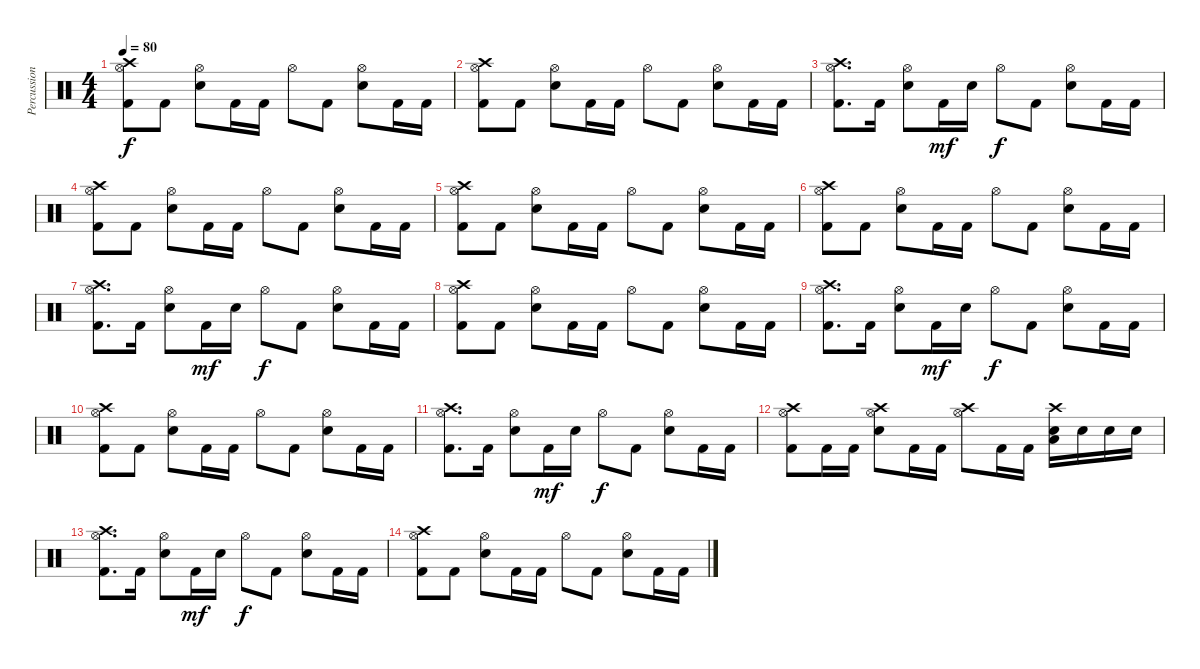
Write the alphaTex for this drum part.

\track ("Percussion" "Percussion") {instrument percussion}
\staff {score}
\articulation defaults
\ts (4 4)
\tempo 80
\clef neutral
\ks c
("Crash high (hit)" "Hi-Hat (open)" "Kick (hit) 2").8{dy f} "Kick (hit) 2".8 ("Hi-Hat (open)" "Snare (hit) 2").8 "Kick (hit) 2".16 "Kick (hit) 2".16 "Hi-Hat (open)".8 "Kick (hit) 2".8 ("Hi-Hat (open)" "Snare (hit) 2").8 "Kick (hit) 2".16 "Kick (hit) 2".16 |
("Crash high (hit)" "Hi-Hat (open)" "Kick (hit) 2").8 "Kick (hit) 2".8 ("Hi-Hat (open)" "Snare (hit) 2").8 "Kick (hit) 2".16 "Kick (hit) 2".16 "Hi-Hat (open)".8 "Kick (hit) 2".8 ("Hi-Hat (open)" "Snare (hit) 2").8 "Kick (hit) 2".16 "Kick (hit) 2".16 |
("Crash high (hit)" "Hi-Hat (open)" "Kick (hit) 2").8{d} "Kick (hit) 2".16 ("Hi-Hat (open)" "Snare (hit) 2").8 "Kick (hit) 2".16{dy mf} "Snare (hit) 2".16 "Hi-Hat (open)".8{dy f} "Kick (hit) 2".8 ("Hi-Hat (open)" "Snare (hit) 2").8 "Kick (hit) 2".16 "Kick (hit) 2".16 |
("Crash high (hit)" "Hi-Hat (open)" "Kick (hit) 2").8 "Kick (hit) 2".8 ("Hi-Hat (open)" "Snare (hit) 2").8 "Kick (hit) 2".16 "Kick (hit) 2".16 "Hi-Hat (open)".8 "Kick (hit) 2".8 ("Hi-Hat (open)" "Snare (hit) 2").8 "Kick (hit) 2".16 "Kick (hit) 2".16 |
("Crash high (hit)" "Hi-Hat (open)" "Kick (hit) 2").8 "Kick (hit) 2".8 ("Hi-Hat (open)" "Snare (hit) 2").8 "Kick (hit) 2".16 "Kick (hit) 2".16 "Hi-Hat (open)".8 "Kick (hit) 2".8 ("Hi-Hat (open)" "Snare (hit) 2").8 "Kick (hit) 2".16 "Kick (hit) 2".16 |
("Crash high (hit)" "Hi-Hat (open)" "Kick (hit) 2").8 "Kick (hit) 2".8 ("Hi-Hat (open)" "Snare (hit) 2").8 "Kick (hit) 2".16 "Kick (hit) 2".16 "Hi-Hat (open)".8 "Kick (hit) 2".8 ("Hi-Hat (open)" "Snare (hit) 2").8 "Kick (hit) 2".16 "Kick (hit) 2".16 |
("Crash high (hit)" "Hi-Hat (open)" "Kick (hit) 2").8{d} "Kick (hit) 2".16 ("Hi-Hat (open)" "Snare (hit) 2").8 "Kick (hit) 2".16{dy mf} "Snare (hit) 2".16 "Hi-Hat (open)".8{dy f} "Kick (hit) 2".8 ("Hi-Hat (open)" "Snare (hit) 2").8 "Kick (hit) 2".16 "Kick (hit) 2".16 |
("Crash high (hit)" "Hi-Hat (open)" "Kick (hit) 2").8 "Kick (hit) 2".8 ("Hi-Hat (open)" "Snare (hit) 2").8 "Kick (hit) 2".16 "Kick (hit) 2".16 "Hi-Hat (open)".8 "Kick (hit) 2".8 ("Hi-Hat (open)" "Snare (hit) 2").8 "Kick (hit) 2".16 "Kick (hit) 2".16 |
("Crash high (hit)" "Hi-Hat (open)" "Kick (hit) 2").8{d} "Kick (hit) 2".16 ("Hi-Hat (open)" "Snare (hit) 2").8 "Kick (hit) 2".16{dy mf} "Snare (hit) 2".16 "Hi-Hat (open)".8{dy f} "Kick (hit) 2".8 ("Hi-Hat (open)" "Snare (hit) 2").8 "Kick (hit) 2".16 "Kick (hit) 2".16 |
("Crash high (hit)" "Hi-Hat (open)" "Kick (hit) 2").8 "Kick (hit) 2".8 ("Hi-Hat (open)" "Snare (hit) 2").8 "Kick (hit) 2".16 "Kick (hit) 2".16 "Hi-Hat (open)".8 "Kick (hit) 2".8 ("Hi-Hat (open)" "Snare (hit) 2").8 "Kick (hit) 2".16 "Kick (hit) 2".16 |
("Crash high (hit)" "Hi-Hat (open)" "Kick (hit) 2").8{d} "Kick (hit) 2".16 ("Hi-Hat (open)" "Snare (hit) 2").8 "Kick (hit) 2".16{dy mf} "Snare (hit) 2".16 "Hi-Hat (open)".8{dy f} "Kick (hit) 2".8 ("Hi-Hat (open)" "Snare (hit) 2").8 "Kick (hit) 2".16 "Kick (hit) 2".16 |
("Crash high (hit)" "Hi-Hat (open)" "Kick (hit) 2").8 "Kick (hit) 2".16 "Kick (hit) 2".16 ("Crash high (hit)" "Hi-Hat (open)" "Snare (hit) 2").8 "Kick (hit) 2".16 "Kick (hit) 2".16 ("Crash high (hit)" "Hi-Hat (open)").8 "Kick (hit) 2".16 "Kick (hit) 2".16 ("Crash high (hit)" "Low Floor Tom (hit)" "Snare (hit) 2").16 "Snare (hit) 2".16 "Snare (hit) 2".16 "Snare (hit) 2".16 |
("Crash high (hit)" "Hi-Hat (open)" "Kick (hit) 2").8{d} "Kick (hit) 2".16 ("Hi-Hat (open)" "Snare (hit) 2").8 "Kick (hit) 2".16{dy mf} "Snare (hit) 2".16 "Hi-Hat (open)".8{dy f} "Kick (hit) 2".8 ("Hi-Hat (open)" "Snare (hit) 2").8 "Kick (hit) 2".16 "Kick (hit) 2".16 |
("Crash high (hit)" "Hi-Hat (open)" "Kick (hit) 2").8 "Kick (hit) 2".8 ("Hi-Hat (open)" "Snare (hit) 2").8 "Kick (hit) 2".16 "Kick (hit) 2".16 "Hi-Hat (open)".8 "Kick (hit) 2".8 ("Hi-Hat (open)" "Snare (hit) 2").8 "Kick (hit) 2".16 "Kick (hit) 2".16
